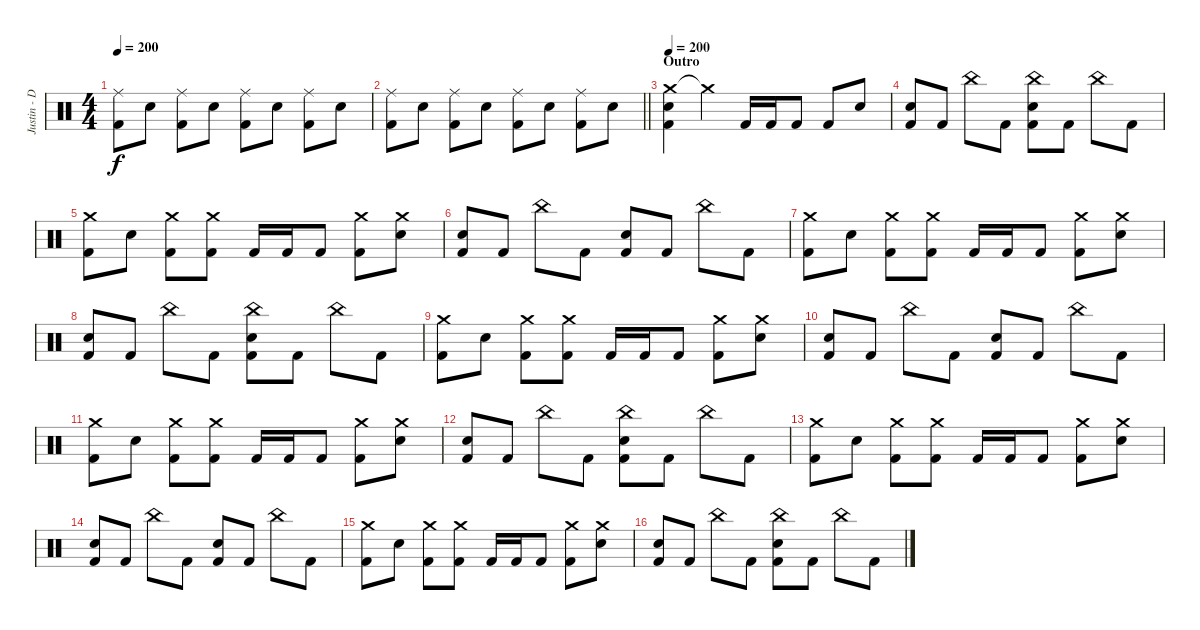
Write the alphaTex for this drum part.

\track ("Justin - Drums" "Justin - D") {instrument percussion}
\staff {score}
\articulation defaults
\ts (4 4)
\tempo 200
\clef neutral
\ks c
("Ride (middle)" "Kick (hit) 2").8{dy f} "Snare (hit) 2".8 ("Ride (middle)" "Kick (hit) 2").8 "Snare (hit) 2".8 ("Ride (middle)" "Kick (hit) 2").8 "Snare (hit) 2".8 ("Ride (middle)" "Kick (hit) 2").8 "Snare (hit) 2".8 |
\barLineRight lightlight
("Ride (middle)" "Kick (hit) 2").8 "Snare (hit) 2".8 ("Ride (middle)" "Kick (hit) 2").8 "Snare (hit) 2".8 ("Ride (middle)" "Kick (hit) 2").8 "Snare (hit) 2".8 ("Ride (middle)" "Kick (hit) 2").8 "Snare (hit) 2".8 |
\section ("" "Outro")
\tempo 200
("Crash medium (hit)" "Snare (hit) 2" "Kick (hit) 2").4 "Crash medium (hit)"{t}.4 "Kick (hit) 2".16 "Kick (hit) 2".16 "Kick (hit) 2".8 "Kick (hit) 2".8 "Snare (hit) 2".8 |
("Snare (hit) 2" "Kick (hit) 2").8 "Kick (hit) 2".8 "China (hit)".8 "Kick (hit) 2".8 ("China (hit)" "Snare (hit) 2" "Kick (hit) 2").8 "Kick (hit) 2".8 "China (hit)".8 "Kick (hit) 2".8 |
("Crash medium (hit)" "Kick (hit) 2").8 "Snare (hit) 2".8 ("Crash medium (hit)" "Kick (hit) 2").8 ("Crash medium (hit)" "Kick (hit) 2").8 "Kick (hit) 2".16 "Kick (hit) 2".16 "Kick (hit) 2".8 ("Crash medium (hit)" "Kick (hit) 2").8 ("Crash medium (hit)" "Snare (hit) 2").8 |
("Snare (hit) 2" "Kick (hit) 2").8 "Kick (hit) 2".8 "China (hit)".8 "Kick (hit) 2".8 ("Snare (hit) 2" "Kick (hit) 2").8 "Kick (hit) 2".8 "China (hit)".8 "Kick (hit) 2".8 |
("Crash medium (hit)" "Kick (hit) 2").8 "Snare (hit) 2".8 ("Crash medium (hit)" "Kick (hit) 2").8 ("Crash medium (hit)" "Kick (hit) 2").8 "Kick (hit) 2".16 "Kick (hit) 2".16 "Kick (hit) 2".8 ("Crash medium (hit)" "Kick (hit) 2").8 ("Crash medium (hit)" "Snare (hit) 2").8 |
("Snare (hit) 2" "Kick (hit) 2").8 "Kick (hit) 2".8 "China (hit)".8 "Kick (hit) 2".8 ("China (hit)" "Snare (hit) 2" "Kick (hit) 2").8 "Kick (hit) 2".8 "China (hit)".8 "Kick (hit) 2".8 |
("Crash medium (hit)" "Kick (hit) 2").8 "Snare (hit) 2".8 ("Crash medium (hit)" "Kick (hit) 2").8 ("Crash medium (hit)" "Kick (hit) 2").8 "Kick (hit) 2".16 "Kick (hit) 2".16 "Kick (hit) 2".8 ("Crash medium (hit)" "Kick (hit) 2").8 ("Crash medium (hit)" "Snare (hit) 2").8 |
("Snare (hit) 2" "Kick (hit) 2").8 "Kick (hit) 2".8 "China (hit)".8 "Kick (hit) 2".8 ("Snare (hit) 2" "Kick (hit) 2").8 "Kick (hit) 2".8 "China (hit)".8 "Kick (hit) 2".8 |
("Crash medium (hit)" "Kick (hit) 2").8 "Snare (hit) 2".8 ("Crash medium (hit)" "Kick (hit) 2").8 ("Crash medium (hit)" "Kick (hit) 2").8 "Kick (hit) 2".16 "Kick (hit) 2".16 "Kick (hit) 2".8 ("Crash medium (hit)" "Kick (hit) 2").8 ("Crash medium (hit)" "Snare (hit) 2").8 |
("Snare (hit) 2" "Kick (hit) 2").8 "Kick (hit) 2".8 "China (hit)".8 "Kick (hit) 2".8 ("China (hit)" "Snare (hit) 2" "Kick (hit) 2").8 "Kick (hit) 2".8 "China (hit)".8 "Kick (hit) 2".8 |
("Crash medium (hit)" "Kick (hit) 2").8 "Snare (hit) 2".8 ("Crash medium (hit)" "Kick (hit) 2").8 ("Crash medium (hit)" "Kick (hit) 2").8 "Kick (hit) 2".16 "Kick (hit) 2".16 "Kick (hit) 2".8 ("Crash medium (hit)" "Kick (hit) 2").8 ("Crash medium (hit)" "Snare (hit) 2").8 |
("Snare (hit) 2" "Kick (hit) 2").8 "Kick (hit) 2".8 "China (hit)".8 "Kick (hit) 2".8 ("Snare (hit) 2" "Kick (hit) 2").8 "Kick (hit) 2".8 "China (hit)".8 "Kick (hit) 2".8 |
("Crash medium (hit)" "Kick (hit) 2").8 "Snare (hit) 2".8 ("Crash medium (hit)" "Kick (hit) 2").8 ("Crash medium (hit)" "Kick (hit) 2").8 "Kick (hit) 2".16 "Kick (hit) 2".16 "Kick (hit) 2".8 ("Crash medium (hit)" "Kick (hit) 2").8 ("Crash medium (hit)" "Snare (hit) 2").8 |
("Snare (hit) 2" "Kick (hit) 2").8 "Kick (hit) 2".8 "China (hit)".8 "Kick (hit) 2".8 ("China (hit)" "Snare (hit) 2" "Kick (hit) 2").8 "Kick (hit) 2".8 "China (hit)".8 "Kick (hit) 2".8
